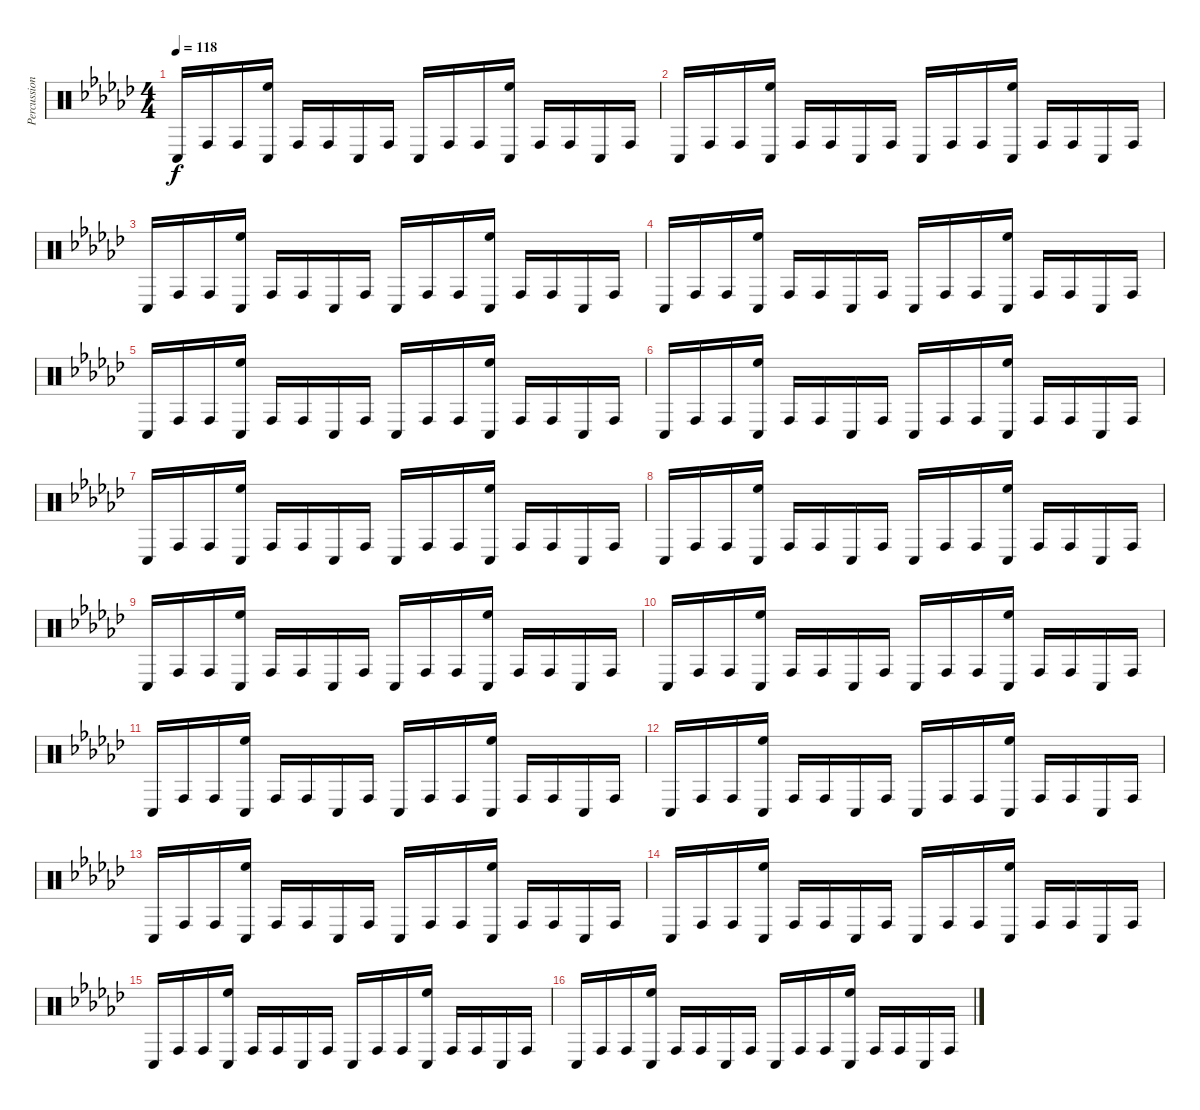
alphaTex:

\track ("Percussions 2" "Percussion") {instrument percussion}
\staff {score}
\articulation defaults
\ts (4 4)
\tempo 118
\clef neutral
\ks ebminor "Conga low (hit)".16{dy f} "Conga high (hit)".16 "Conga high (hit)".16
("Conga low (hit)" "High Floor Tom (hit)").16 "Conga high (hit)".16 "Conga high (hit)".16 "Conga low (hit)".16 "Conga high (hit)".16 "Conga low (hit)".16 "Conga high (hit)".16 "Conga high (hit)".16 ("Conga low (hit)" "High Floor Tom (hit)").16 "Conga high (hit)".16 "Conga high (hit)".16 "Conga low (hit)".16 "Conga high (hit)".16 |
"Conga low (hit)".16 "Conga high (hit)".16 "Conga high (hit)".16 ("Conga low (hit)" "High Floor Tom (hit)").16 "Conga high (hit)".16 "Conga high (hit)".16 "Conga low (hit)".16 "Conga high (hit)".16 "Conga low (hit)".16 "Conga high (hit)".16 "Conga high (hit)".16 ("Conga low (hit)" "High Floor Tom (hit)").16 "Conga high (hit)".16 "Conga high (hit)".16 "Conga low (hit)".16 "Conga high (hit)".16 |
"Conga low (hit)".16 "Conga high (hit)".16 "Conga high (hit)".16 ("Conga low (hit)" "High Floor Tom (hit)").16 "Conga high (hit)".16 "Conga high (hit)".16 "Conga low (hit)".16 "Conga high (hit)".16 "Conga low (hit)".16 "Conga high (hit)".16 "Conga high (hit)".16 ("Conga low (hit)" "High Floor Tom (hit)").16 "Conga high (hit)".16 "Conga high (hit)".16 "Conga low (hit)".16 "Conga high (hit)".16 |
"Conga low (hit)".16 "Conga high (hit)".16 "Conga high (hit)".16 ("Conga low (hit)" "High Floor Tom (hit)").16 "Conga high (hit)".16 "Conga high (hit)".16 "Conga low (hit)".16 "Conga high (hit)".16 "Conga low (hit)".16 "Conga high (hit)".16 "Conga high (hit)".16 ("Conga low (hit)" "High Floor Tom (hit)").16 "Conga high (hit)".16 "Conga high (hit)".16 "Conga low (hit)".16 "Conga high (hit)".16 |
"Conga low (hit)".16 "Conga high (hit)".16 "Conga high (hit)".16 ("Conga low (hit)" "High Floor Tom (hit)").16 "Conga high (hit)".16 "Conga high (hit)".16 "Conga low (hit)".16 "Conga high (hit)".16 "Conga low (hit)".16 "Conga high (hit)".16 "Conga high (hit)".16 ("Conga low (hit)" "High Floor Tom (hit)").16 "Conga high (hit)".16 "Conga high (hit)".16 "Conga low (hit)".16 "Conga high (hit)".16 |
"Conga low (hit)".16 "Conga high (hit)".16 "Conga high (hit)".16 ("Conga low (hit)" "High Floor Tom (hit)").16 "Conga high (hit)".16 "Conga high (hit)".16 "Conga low (hit)".16 "Conga high (hit)".16 "Conga low (hit)".16 "Conga high (hit)".16 "Conga high (hit)".16 ("Conga low (hit)" "High Floor Tom (hit)").16 "Conga high (hit)".16 "Conga high (hit)".16 "Conga low (hit)".16 "Conga high (hit)".16 |
"Conga low (hit)".16 "Conga high (hit)".16 "Conga high (hit)".16 ("Conga low (hit)" "High Floor Tom (hit)").16 "Conga high (hit)".16 "Conga high (hit)".16 "Conga low (hit)".16 "Conga high (hit)".16 "Conga low (hit)".16 "Conga high (hit)".16 "Conga high (hit)".16 ("Conga low (hit)" "High Floor Tom (hit)").16 "Conga high (hit)".16 "Conga high (hit)".16 "Conga low (hit)".16 "Conga high (hit)".16 |
"Conga low (hit)".16 "Conga high (hit)".16 "Conga high (hit)".16 ("Conga low (hit)" "High Floor Tom (hit)").16 "Conga high (hit)".16 "Conga high (hit)".16 "Conga low (hit)".16 "Conga high (hit)".16 "Conga low (hit)".16 "Conga high (hit)".16 "Conga high (hit)".16 ("Conga low (hit)" "High Floor Tom (hit)").16 "Conga high (hit)".16 "Conga high (hit)".16 "Conga low (hit)".16 "Conga high (hit)".16 |
"Conga low (hit)".16 "Conga high (hit)".16 "Conga high (hit)".16 ("Conga low (hit)" "High Floor Tom (hit)").16 "Conga high (hit)".16 "Conga high (hit)".16 "Conga low (hit)".16 "Conga high (hit)".16 "Conga low (hit)".16 "Conga high (hit)".16 "Conga high (hit)".16 ("Conga low (hit)" "High Floor Tom (hit)").16 "Conga high (hit)".16 "Conga high (hit)".16 "Conga low (hit)".16 "Conga high (hit)".16 |
"Conga low (hit)".16 "Conga high (hit)".16 "Conga high (hit)".16 ("Conga low (hit)" "High Floor Tom (hit)").16 "Conga high (hit)".16 "Conga high (hit)".16 "Conga low (hit)".16 "Conga high (hit)".16 "Conga low (hit)".16 "Conga high (hit)".16 "Conga high (hit)".16 ("Conga low (hit)" "High Floor Tom (hit)").16 "Conga high (hit)".16 "Conga high (hit)".16 "Conga low (hit)".16 "Conga high (hit)".16 |
"Conga low (hit)".16 "Conga high (hit)".16 "Conga high (hit)".16 ("Conga low (hit)" "High Floor Tom (hit)").16 "Conga high (hit)".16 "Conga high (hit)".16 "Conga low (hit)".16 "Conga high (hit)".16 "Conga low (hit)".16 "Conga high (hit)".16 "Conga high (hit)".16 ("Conga low (hit)" "High Floor Tom (hit)").16 "Conga high (hit)".16 "Conga high (hit)".16 "Conga low (hit)".16 "Conga high (hit)".16 |
"Conga low (hit)".16 "Conga high (hit)".16 "Conga high (hit)".16 ("Conga low (hit)" "High Floor Tom (hit)").16 "Conga high (hit)".16 "Conga high (hit)".16 "Conga low (hit)".16 "Conga high (hit)".16 "Conga low (hit)".16 "Conga high (hit)".16 "Conga high (hit)".16 ("Conga low (hit)" "High Floor Tom (hit)").16 "Conga high (hit)".16 "Conga high (hit)".16 "Conga low (hit)".16 "Conga high (hit)".16 |
"Conga low (hit)".16 "Conga high (hit)".16 "Conga high (hit)".16 ("Conga low (hit)" "High Floor Tom (hit)").16 "Conga high (hit)".16 "Conga high (hit)".16 "Conga low (hit)".16 "Conga high (hit)".16 "Conga low (hit)".16 "Conga high (hit)".16 "Conga high (hit)".16 ("Conga low (hit)" "High Floor Tom (hit)").16 "Conga high (hit)".16 "Conga high (hit)".16 "Conga low (hit)".16 "Conga high (hit)".16 |
"Conga low (hit)".16 "Conga high (hit)".16 "Conga high (hit)".16 ("Conga low (hit)" "High Floor Tom (hit)").16 "Conga high (hit)".16 "Conga high (hit)".16 "Conga low (hit)".16 "Conga high (hit)".16 "Conga low (hit)".16 "Conga high (hit)".16 "Conga high (hit)".16 ("Conga low (hit)" "High Floor Tom (hit)").16 "Conga high (hit)".16 "Conga high (hit)".16 "Conga low (hit)".16 "Conga high (hit)".16 |
"Conga low (hit)".16 "Conga high (hit)".16 "Conga high (hit)".16 ("Conga low (hit)" "High Floor Tom (hit)").16 "Conga high (hit)".16 "Conga high (hit)".16 "Conga low (hit)".16 "Conga high (hit)".16 "Conga low (hit)".16 "Conga high (hit)".16 "Conga high (hit)".16 ("Conga low (hit)" "High Floor Tom (hit)").16 "Conga high (hit)".16 "Conga high (hit)".16 "Conga low (hit)".16 "Conga high (hit)".16 |
"Conga low (hit)".16 "Conga high (hit)".16 "Conga high (hit)".16 ("Conga low (hit)" "High Floor Tom (hit)").16 "Conga high (hit)".16 "Conga high (hit)".16 "Conga low (hit)".16 "Conga high (hit)".16 "Conga low (hit)".16 "Conga high (hit)".16 "Conga high (hit)".16 ("Conga low (hit)" "High Floor Tom (hit)").16 "Conga high (hit)".16 "Conga high (hit)".16 "Conga low (hit)".16 "Conga high (hit)".16
